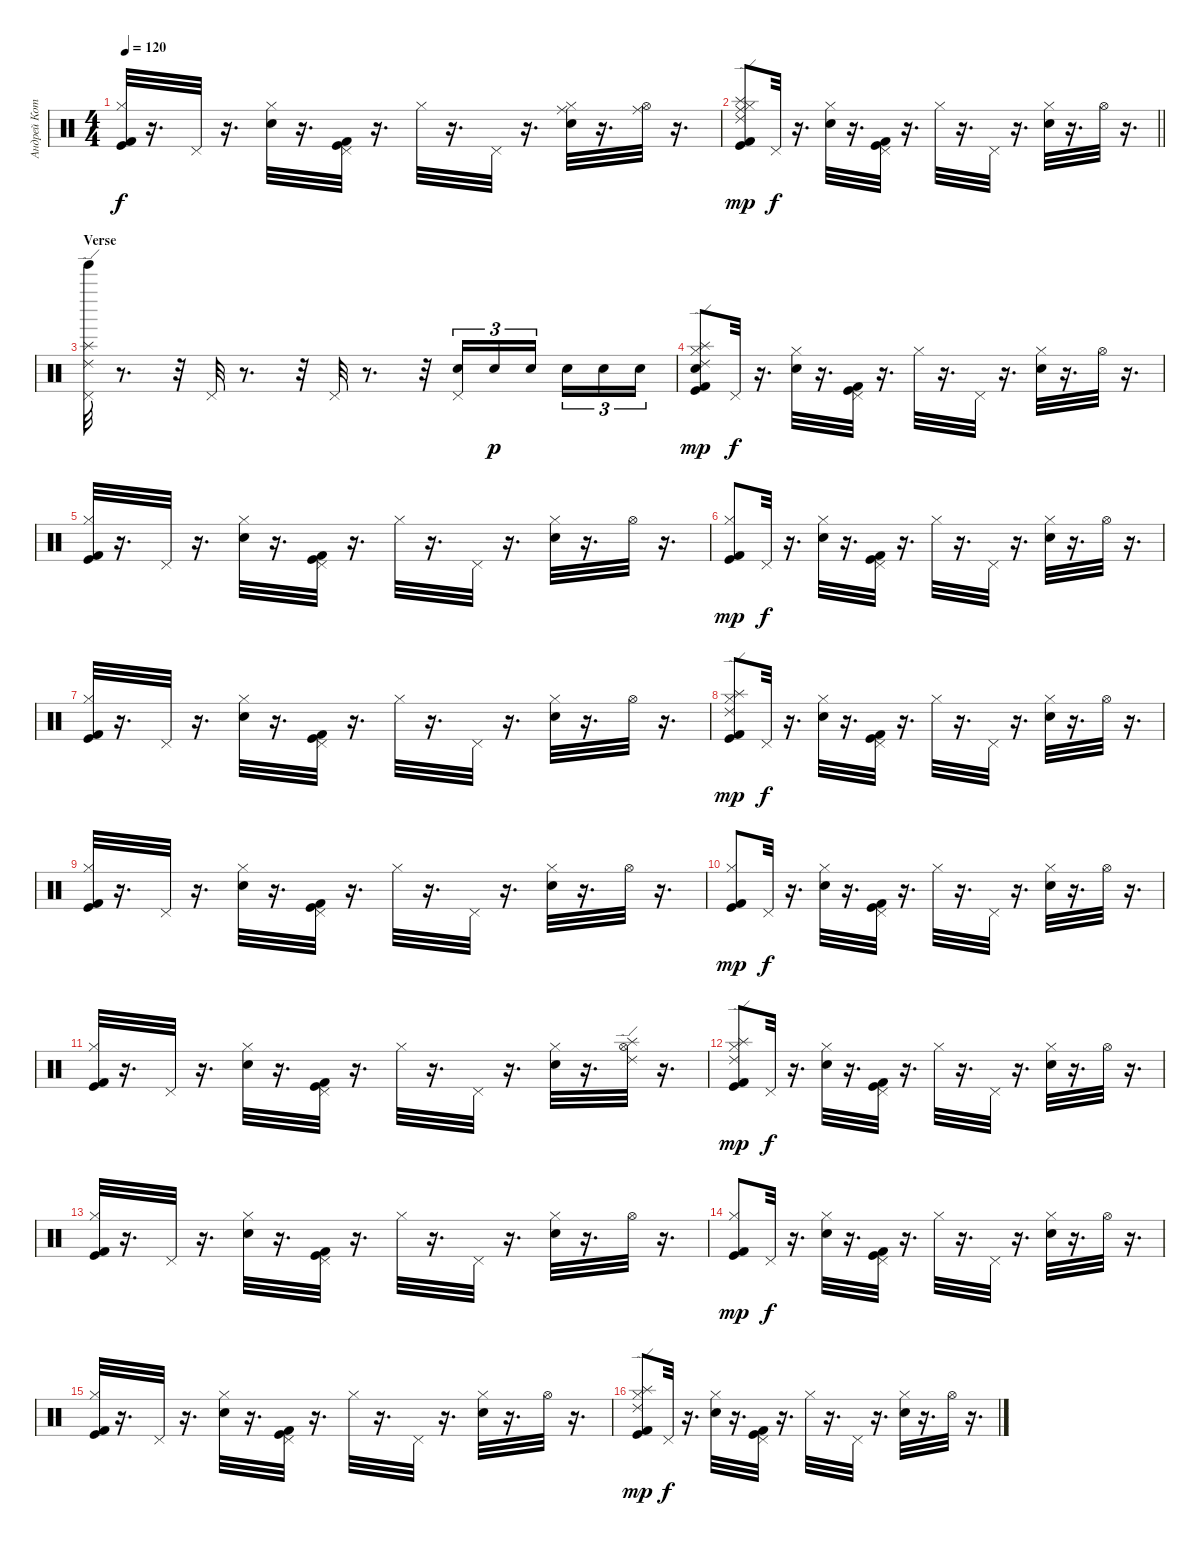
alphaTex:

\track ("Андрей Котов " "Андрей Кот") {instrument percussion}
\staff {score}
\articulation defaults
\ts (4 4)
\tempo 120
\clef neutral
\ks c
("Kick (hit)" "Hi-Hat (closed)" "Kick (hit) 2").32{dy f} r.16{d} "Pedal Hi-Hat (hit)".32 r.16{d} ("Hi-Hat (closed)" "Snare (hit) 2").32 r.16{d} ("Kick (hit)" "Pedal Hi-Hat (hit)" "Kick (hit) 2").32 r.16{d} "Hi-Hat (closed)".32 r.16{d} "Pedal Hi-Hat (hit)".32 r.16{d} ("Ride (middle)" "Hi-Hat (closed)" "Snare (hit) 2").32 r.16{d} ("Ride (middle)" "Hi-Hat (open)").32 r.16{d} |
\barLineRight lightlight
("Kick (hit)" "Ride (middle)" "Splash (hit)" "Ride (edge) 2" "Hi-Hat (closed)" "Kick (hit) 2").8{dy mp} "Pedal Hi-Hat (hit)".32{dy f} r.16{d} ("Hi-Hat (closed)" "Snare (hit) 2").32 r.16{d} ("Kick (hit)" "Pedal Hi-Hat (hit)" "Kick (hit) 2").32 r.16{d} "Hi-Hat (closed)".32 r.16{d} "Pedal Hi-Hat (hit)".32 r.16{d} ("Hi-Hat (closed)" "Snare (hit) 2").32 r.16{d} "Hi-Hat (open)".32 r.16{d} |
\section ("" "Verse ")
("Ride (edge) 2" "Splash (hit)" "Tinkle Bell (hit)" "Pedal Hi-Hat (hit)").32 r.8{d} r.32 "Pedal Hi-Hat (hit)".32 r.8{d} r.32 "Pedal Hi-Hat (hit)".32 r.8{d} r.32 ("Snare (hit) 2" "Pedal Hi-Hat (hit)").16{tu (3 2)} "Snare (hit) 2".16{tu (3 2) dy p} "Snare (hit) 2".16{tu (3 2) beam splitsecondary} "Snare (hit) 2".16{tu (3 2)} "Snare (hit) 2".16{tu (3 2)} "Snare (hit) 2".16{tu (3 2)} |
("Snare (hit) 2" "Kick (hit)" "Splash (hit)" "Ride (edge) 2" "Hi-Hat (closed)" "Kick (hit) 2").8{dy mp} "Pedal Hi-Hat (hit)".32{dy f} r.16{d} ("Hi-Hat (closed)" "Snare (hit) 2").32 r.16{d} ("Kick (hit)" "Pedal Hi-Hat (hit)" "Kick (hit) 2").32 r.16{d} "Hi-Hat (closed)".32 r.16{d} "Pedal Hi-Hat (hit)".32 r.16{d} ("Hi-Hat (closed)" "Snare (hit) 2").32 r.16{d} "Hi-Hat (open)".32 r.16{d} |
("Kick (hit)" "Hi-Hat (closed)" "Kick (hit) 2").32 r.16{d} "Pedal Hi-Hat (hit)".32 r.16{d} ("Hi-Hat (closed)" "Snare (hit) 2").32 r.16{d} ("Kick (hit)" "Pedal Hi-Hat (hit)" "Kick (hit) 2").32 r.16{d} "Hi-Hat (closed)".32 r.16{d} "Pedal Hi-Hat (hit)".32 r.16{d} ("Hi-Hat (closed)" "Snare (hit) 2").32 r.16{d} "Hi-Hat (open)".32 r.16{d} |
("Kick (hit)" "Hi-Hat (closed)" "Kick (hit) 2").8{dy mp} "Pedal Hi-Hat (hit)".32{dy f} r.16{d} ("Hi-Hat (closed)" "Snare (hit) 2").32 r.16{d} ("Kick (hit)" "Pedal Hi-Hat (hit)" "Kick (hit) 2").32 r.16{d} "Hi-Hat (closed)".32 r.16{d} "Pedal Hi-Hat (hit)".32 r.16{d} ("Hi-Hat (closed)" "Snare (hit) 2").32 r.16{d} "Hi-Hat (open)".32 r.16{d} |
("Kick (hit)" "Hi-Hat (closed)" "Kick (hit) 2").32 r.16{d} "Pedal Hi-Hat (hit)".32 r.16{d} ("Hi-Hat (closed)" "Snare (hit) 2").32 r.16{d} ("Kick (hit)" "Pedal Hi-Hat (hit)" "Kick (hit) 2").32 r.16{d} "Hi-Hat (closed)".32 r.16{d} "Pedal Hi-Hat (hit)".32 r.16{d} ("Hi-Hat (closed)" "Snare (hit) 2").32 r.16{d} "Hi-Hat (open)".32 r.16{d} |
("Kick (hit)" "Splash (hit)" "Ride (edge) 2" "Hi-Hat (closed)" "Kick (hit) 2").8{dy mp} "Pedal Hi-Hat (hit)".32{dy f} r.16{d} ("Hi-Hat (closed)" "Snare (hit) 2").32 r.16{d} ("Kick (hit)" "Pedal Hi-Hat (hit)" "Kick (hit) 2").32 r.16{d} "Hi-Hat (closed)".32 r.16{d} "Pedal Hi-Hat (hit)".32 r.16{d} ("Hi-Hat (closed)" "Snare (hit) 2").32 r.16{d} "Hi-Hat (open)".32 r.16{d} |
("Kick (hit)" "Hi-Hat (closed)" "Kick (hit) 2").32 r.16{d} "Pedal Hi-Hat (hit)".32 r.16{d} ("Hi-Hat (closed)" "Snare (hit) 2").32 r.16{d} ("Kick (hit)" "Pedal Hi-Hat (hit)" "Kick (hit) 2").32 r.16{d} "Hi-Hat (closed)".32 r.16{d} "Pedal Hi-Hat (hit)".32 r.16{d} ("Hi-Hat (closed)" "Snare (hit) 2").32 r.16{d} "Hi-Hat (open)".32 r.16{d} |
("Kick (hit)" "Hi-Hat (closed)" "Kick (hit) 2").8{dy mp} "Pedal Hi-Hat (hit)".32{dy f} r.16{d} ("Hi-Hat (closed)" "Snare (hit) 2").32 r.16{d} ("Kick (hit)" "Pedal Hi-Hat (hit)" "Kick (hit) 2").32 r.16{d} "Hi-Hat (closed)".32 r.16{d} "Pedal Hi-Hat (hit)".32 r.16{d} ("Hi-Hat (closed)" "Snare (hit) 2").32 r.16{d} "Hi-Hat (open)".32 r.16{d} |
("Kick (hit)" "Hi-Hat (closed)" "Kick (hit) 2").32 r.16{d} "Pedal Hi-Hat (hit)".32 r.16{d} ("Hi-Hat (closed)" "Snare (hit) 2").32 r.16{d} ("Kick (hit)" "Pedal Hi-Hat (hit)" "Kick (hit) 2").32 r.16{d} "Hi-Hat (closed)".32 r.16{d} "Pedal Hi-Hat (hit)".32 r.16{d} ("Hi-Hat (closed)" "Snare (hit) 2").32 r.16{d} ("Splash (hit)" "Ride (edge) 2" "Hi-Hat (open)").32 r.16{d} |
("Kick (hit)" "Splash (hit)" "Ride (edge) 2" "Hi-Hat (closed)" "Kick (hit) 2").8{dy mp} "Pedal Hi-Hat (hit)".32{dy f} r.16{d} ("Hi-Hat (closed)" "Snare (hit) 2").32 r.16{d} ("Kick (hit)" "Pedal Hi-Hat (hit)" "Kick (hit) 2").32 r.16{d} "Hi-Hat (closed)".32 r.16{d} "Pedal Hi-Hat (hit)".32 r.16{d} ("Hi-Hat (closed)" "Snare (hit) 2").32 r.16{d} "Hi-Hat (open)".32 r.16{d} |
("Kick (hit)" "Hi-Hat (closed)" "Kick (hit) 2").32 r.16{d} "Pedal Hi-Hat (hit)".32 r.16{d} ("Hi-Hat (closed)" "Snare (hit) 2").32 r.16{d} ("Kick (hit)" "Pedal Hi-Hat (hit)" "Kick (hit) 2").32 r.16{d} "Hi-Hat (closed)".32 r.16{d} "Pedal Hi-Hat (hit)".32 r.16{d} ("Hi-Hat (closed)" "Snare (hit) 2").32 r.16{d} "Hi-Hat (open)".32 r.16{d} |
("Kick (hit)" "Hi-Hat (closed)" "Kick (hit) 2").8{dy mp} "Pedal Hi-Hat (hit)".32{dy f} r.16{d} ("Hi-Hat (closed)" "Snare (hit) 2").32 r.16{d} ("Kick (hit)" "Pedal Hi-Hat (hit)" "Kick (hit) 2").32 r.16{d} "Hi-Hat (closed)".32 r.16{d} "Pedal Hi-Hat (hit)".32 r.16{d} ("Hi-Hat (closed)" "Snare (hit) 2").32 r.16{d} "Hi-Hat (open)".32 r.16{d} |
("Kick (hit)" "Hi-Hat (closed)" "Kick (hit) 2").32 r.16{d} "Pedal Hi-Hat (hit)".32 r.16{d} ("Hi-Hat (closed)" "Snare (hit) 2").32 r.16{d} ("Kick (hit)" "Pedal Hi-Hat (hit)" "Kick (hit) 2").32 r.16{d} "Hi-Hat (closed)".32 r.16{d} "Pedal Hi-Hat (hit)".32 r.16{d} ("Hi-Hat (closed)" "Snare (hit) 2").32 r.16{d} "Hi-Hat (open)".32 r.16{d} |
("Kick (hit)" "Splash (hit)" "Ride (edge) 2" "Hi-Hat (closed)" "Kick (hit) 2").8{dy mp} "Pedal Hi-Hat (hit)".32{dy f} r.16{d} ("Hi-Hat (closed)" "Snare (hit) 2").32 r.16{d} ("Kick (hit)" "Pedal Hi-Hat (hit)" "Kick (hit) 2").32 r.16{d} "Hi-Hat (closed)".32 r.16{d} "Pedal Hi-Hat (hit)".32 r.16{d} ("Hi-Hat (closed)" "Snare (hit) 2").32 r.16{d} "Hi-Hat (open)".32 r.16{d}
